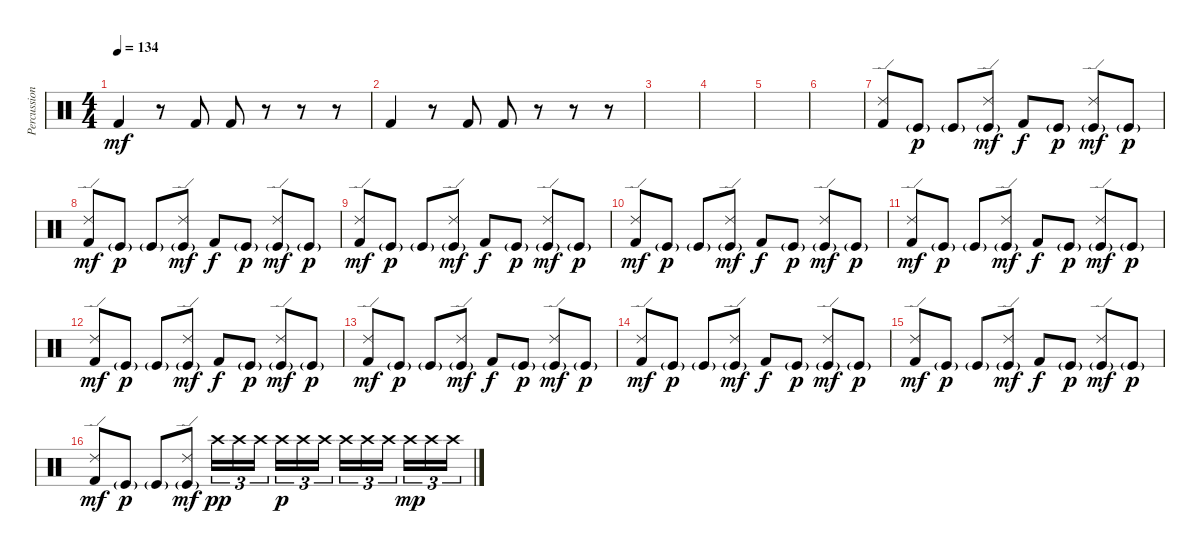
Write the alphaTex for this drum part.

\track ("Percussion" "Percussion") {instrument percussion}
\staff {score}
\articulation defaults
\ts (4 4)
\tempo 134
\clef neutral
\ks c "Kick (hit) 2".4{dy mf}
r.8 "Kick (hit) 2".8 "Kick (hit) 2".8 r.8 r.8 r.8 |
"Kick (hit) 2".4 r.8 "Kick (hit) 2".8 "Kick (hit) 2".8 r.8 r.8 r.8 |
|
|
|
|
("Kick (hit) 2" "Ride (edge) 2").8 "Kick (hit)"{g}.8{dy p} "Kick (hit)"{g}.8 ("Kick (hit)"{g} "Ride (edge) 2").8{dy mf} "Kick (hit) 2".8{dy f} "Kick (hit)"{g}.8{dy p} ("Kick (hit)"{g} "Ride (edge) 2").8{dy mf} "Kick (hit)"{g}.8{dy p} |
("Kick (hit) 2" "Ride (edge) 2").8{dy mf} "Kick (hit)"{g}.8{dy p} "Kick (hit)"{g}.8 ("Kick (hit)"{g} "Ride (edge) 2").8{dy mf} "Kick (hit) 2".8{dy f} "Kick (hit)"{g}.8{dy p} ("Kick (hit)"{g} "Ride (edge) 2").8{dy mf} "Kick (hit)"{g}.8{dy p} |
("Kick (hit) 2" "Ride (edge) 2").8{dy mf} "Kick (hit)"{g}.8{dy p} "Kick (hit)"{g}.8 ("Kick (hit)"{g} "Ride (edge) 2").8{dy mf} "Kick (hit) 2".8{dy f} "Kick (hit)"{g}.8{dy p} ("Kick (hit)"{g} "Ride (edge) 2").8{dy mf} "Kick (hit)"{g}.8{dy p} |
("Kick (hit) 2" "Ride (edge) 2").8{dy mf} "Kick (hit)"{g}.8{dy p} "Kick (hit)"{g}.8 ("Kick (hit)"{g} "Ride (edge) 2").8{dy mf} "Kick (hit) 2".8{dy f} "Kick (hit)"{g}.8{dy p} ("Kick (hit)"{g} "Ride (edge) 2").8{dy mf} "Kick (hit)"{g}.8{dy p} |
("Kick (hit) 2" "Ride (edge) 2").8{dy mf} "Kick (hit)"{g}.8{dy p} "Kick (hit)"{g}.8 ("Kick (hit)"{g} "Ride (edge) 2").8{dy mf} "Kick (hit) 2".8{dy f} "Kick (hit)"{g}.8{dy p} ("Kick (hit)"{g} "Ride (edge) 2").8{dy mf} "Kick (hit)"{g}.8{dy p} |
("Kick (hit) 2" "Ride (edge) 2").8{dy mf} "Kick (hit)"{g}.8{dy p} "Kick (hit)"{g}.8 ("Kick (hit)"{g} "Ride (edge) 2").8{dy mf} "Kick (hit) 2".8{dy f} "Kick (hit)"{g}.8{dy p} ("Kick (hit)"{g} "Ride (edge) 2").8{dy mf} "Kick (hit)"{g}.8{dy p} |
("Kick (hit) 2" "Ride (edge) 2").8{dy mf} "Kick (hit)"{g}.8{dy p} "Kick (hit)"{g}.8 ("Kick (hit)"{g} "Ride (edge) 2").8{dy mf} "Kick (hit) 2".8{dy f} "Kick (hit)"{g}.8{dy p} ("Kick (hit)"{g} "Ride (edge) 2").8{dy mf} "Kick (hit)"{g}.8{dy p} |
("Kick (hit) 2" "Ride (edge) 2").8{dy mf} "Kick (hit)"{g}.8{dy p} "Kick (hit)"{g}.8 ("Kick (hit)"{g} "Ride (edge) 2").8{dy mf} "Kick (hit) 2".8{dy f} "Kick (hit)"{g}.8{dy p} ("Kick (hit)"{g} "Ride (edge) 2").8{dy mf} "Kick (hit)"{g}.8{dy p} |
("Kick (hit) 2" "Ride (edge) 2").8{dy mf} "Kick (hit)"{g}.8{dy p} "Kick (hit)"{g}.8 ("Kick (hit)"{g} "Ride (edge) 2").8{dy mf} "Kick (hit) 2".8{dy f} "Kick (hit)"{g}.8{dy p} ("Kick (hit)"{g} "Ride (edge) 2").8{dy mf} "Kick (hit)"{g}.8{dy p} |
("Kick (hit) 2" "Ride (edge) 2").8{dy mf} "Kick (hit)"{g}.8{dy p} "Kick (hit)"{g}.8 ("Kick (hit)"{g} "Ride (edge) 2").8{dy mf} "Crash high (hit)".16{tu (3 2) dy pp} "Crash high (hit)".16{tu (3 2)} "Crash high (hit)".16{tu (3 2) beam splitsecondary} "Crash high (hit)".16{tu (3 2) dy p} "Crash high (hit)".16{tu (3 2)} "Crash high (hit)".16{tu (3 2)} "Crash high (hit)".16{tu (3 2)} "Crash high (hit)".16{tu (3 2)} "Crash high (hit)".16{tu (3 2) beam splitsecondary} "Crash high (hit)".16{tu (3 2) dy mp} "Crash high (hit)".16{tu (3 2)} "Crash high (hit)".16{tu (3 2)}
